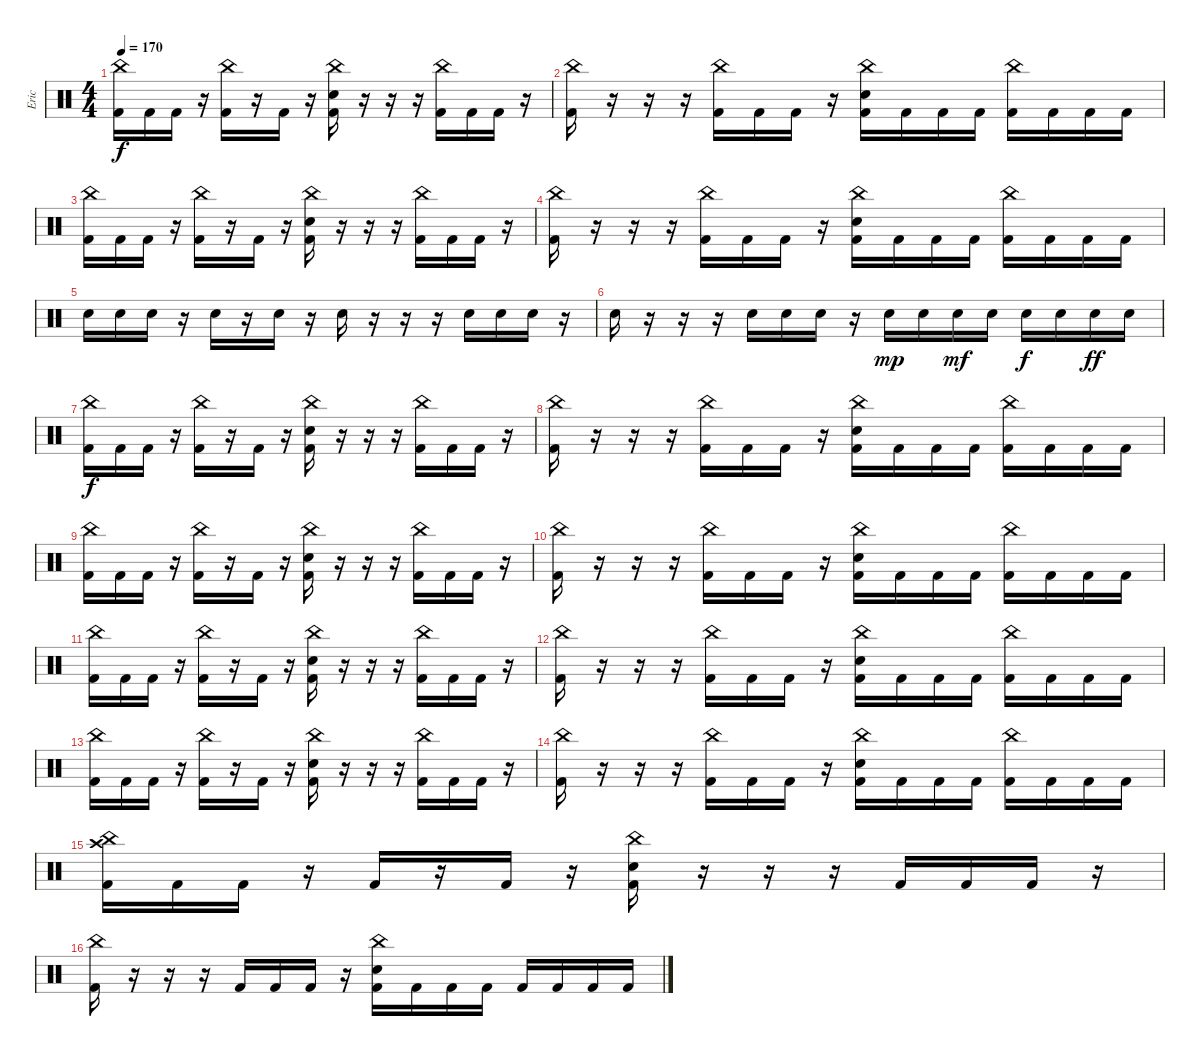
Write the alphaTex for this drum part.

\track ("Eric" "Eric") {instrument percussion}
\staff {score}
\articulation defaults
\ts (4 4)
\tempo 170
\clef neutral
\ks c
("China (hit)" "Kick (hit) 2").16{dy f} "Kick (hit) 2".16 "Kick (hit) 2".16 r.16 ("China (hit)" "Kick (hit) 2").16 r.16 "Kick (hit) 2".16 r.16 ("China (hit)" "Electric Snare (hit)" "Kick (hit) 2").16 r.16 r.16 r.16 ("China (hit)" "Kick (hit) 2").16 "Kick (hit) 2".16 "Kick (hit) 2".16 r.16 |
("China (hit)" "Kick (hit) 2").16 r.16 r.16 r.16 ("China (hit)" "Kick (hit) 2").16 "Kick (hit) 2".16 "Kick (hit) 2".16 r.16 ("China (hit)" "Electric Snare (hit)" "Kick (hit) 2").16 "Kick (hit) 2".16 "Kick (hit) 2".16 "Kick (hit) 2".16 ("China (hit)" "Kick (hit) 2").16 "Kick (hit) 2".16 "Kick (hit) 2".16 "Kick (hit) 2".16 |
("China (hit)" "Kick (hit) 2").16 "Kick (hit) 2".16 "Kick (hit) 2".16 r.16 ("China (hit)" "Kick (hit) 2").16 r.16 "Kick (hit) 2".16 r.16 ("China (hit)" "Electric Snare (hit)" "Kick (hit) 2").16 r.16 r.16 r.16 ("China (hit)" "Kick (hit) 2").16 "Kick (hit) 2".16 "Kick (hit) 2".16 r.16 |
("China (hit)" "Kick (hit) 2").16 r.16 r.16 r.16 ("China (hit)" "Kick (hit) 2").16 "Kick (hit) 2".16 "Kick (hit) 2".16 r.16 ("China (hit)" "Electric Snare (hit)" "Kick (hit) 2").16 "Kick (hit) 2".16 "Kick (hit) 2".16 "Kick (hit) 2".16 ("China (hit)" "Kick (hit) 2").16 "Kick (hit) 2".16 "Kick (hit) 2".16 "Kick (hit) 2".16 |
"Electric Snare (hit)".16 "Electric Snare (hit)".16 "Electric Snare (hit)".16 r.16 "Electric Snare (hit)".16 r.16 "Electric Snare (hit)".16 r.16 "Electric Snare (hit)".16 r.16 r.16 r.16 "Electric Snare (hit)".16 "Electric Snare (hit)".16 "Electric Snare (hit)".16 r.16 |
"Electric Snare (hit)".16 r.16 r.16 r.16 "Electric Snare (hit)".16 "Electric Snare (hit)".16 "Electric Snare (hit)".16 r.16 "Electric Snare (hit)".16{dy mp} "Electric Snare (hit)".16 "Electric Snare (hit)".16{dy mf} "Electric Snare (hit)".16 "Electric Snare (hit)".16{dy f} "Electric Snare (hit)".16 "Electric Snare (hit)".16{dy ff} "Electric Snare (hit)".16 |
("China (hit)" "Kick (hit) 2").16{dy f} "Kick (hit) 2".16 "Kick (hit) 2".16 r.16 ("China (hit)" "Kick (hit) 2").16 r.16 "Kick (hit) 2".16 r.16 ("China (hit)" "Electric Snare (hit)" "Kick (hit) 2").16 r.16 r.16 r.16 ("China (hit)" "Kick (hit) 2").16 "Kick (hit) 2".16 "Kick (hit) 2".16 r.16 |
("China (hit)" "Kick (hit) 2").16 r.16 r.16 r.16 ("China (hit)" "Kick (hit) 2").16 "Kick (hit) 2".16 "Kick (hit) 2".16 r.16 ("China (hit)" "Electric Snare (hit)" "Kick (hit) 2").16 "Kick (hit) 2".16 "Kick (hit) 2".16 "Kick (hit) 2".16 ("China (hit)" "Kick (hit) 2").16 "Kick (hit) 2".16 "Kick (hit) 2".16 "Kick (hit) 2".16 |
("China (hit)" "Kick (hit) 2").16 "Kick (hit) 2".16 "Kick (hit) 2".16 r.16 ("China (hit)" "Kick (hit) 2").16 r.16 "Kick (hit) 2".16 r.16 ("China (hit)" "Electric Snare (hit)" "Kick (hit) 2").16 r.16 r.16 r.16 ("China (hit)" "Kick (hit) 2").16 "Kick (hit) 2".16 "Kick (hit) 2".16 r.16 |
("China (hit)" "Kick (hit) 2").16 r.16 r.16 r.16 ("China (hit)" "Kick (hit) 2").16 "Kick (hit) 2".16 "Kick (hit) 2".16 r.16 ("China (hit)" "Electric Snare (hit)" "Kick (hit) 2").16 "Kick (hit) 2".16 "Kick (hit) 2".16 "Kick (hit) 2".16 ("China (hit)" "Kick (hit) 2").16 "Kick (hit) 2".16 "Kick (hit) 2".16 "Kick (hit) 2".16 |
("China (hit)" "Kick (hit) 2").16 "Kick (hit) 2".16 "Kick (hit) 2".16 r.16 ("China (hit)" "Kick (hit) 2").16 r.16 "Kick (hit) 2".16 r.16 ("China (hit)" "Electric Snare (hit)" "Kick (hit) 2").16 r.16 r.16 r.16 ("China (hit)" "Kick (hit) 2").16 "Kick (hit) 2".16 "Kick (hit) 2".16 r.16 |
("China (hit)" "Kick (hit) 2").16 r.16 r.16 r.16 ("China (hit)" "Kick (hit) 2").16 "Kick (hit) 2".16 "Kick (hit) 2".16 r.16 ("China (hit)" "Electric Snare (hit)" "Kick (hit) 2").16 "Kick (hit) 2".16 "Kick (hit) 2".16 "Kick (hit) 2".16 ("China (hit)" "Kick (hit) 2").16 "Kick (hit) 2".16 "Kick (hit) 2".16 "Kick (hit) 2".16 |
("China (hit)" "Kick (hit) 2").16 "Kick (hit) 2".16 "Kick (hit) 2".16 r.16 ("China (hit)" "Kick (hit) 2").16 r.16 "Kick (hit) 2".16 r.16 ("China (hit)" "Electric Snare (hit)" "Kick (hit) 2").16 r.16 r.16 r.16 ("China (hit)" "Kick (hit) 2").16 "Kick (hit) 2".16 "Kick (hit) 2".16 r.16 |
("China (hit)" "Kick (hit) 2").16 r.16 r.16 r.16 ("China (hit)" "Kick (hit) 2").16 "Kick (hit) 2".16 "Kick (hit) 2".16 r.16 ("China (hit)" "Electric Snare (hit)" "Kick (hit) 2").16 "Kick (hit) 2".16 "Kick (hit) 2".16 "Kick (hit) 2".16 ("China (hit)" "Kick (hit) 2").16 "Kick (hit) 2".16 "Kick (hit) 2".16 "Kick (hit) 2".16 |
("China (hit)" "Crash high (hit)" "Kick (hit) 2").16 "Kick (hit) 2".16 "Kick (hit) 2".16 r.16 "Kick (hit) 2".16 r.16 "Kick (hit) 2".16 r.16 ("China (hit)" "Electric Snare (hit)" "Kick (hit) 2").16 r.16 r.16 r.16 "Kick (hit) 2".16 "Kick (hit) 2".16 "Kick (hit) 2".16 r.16 |
("China (hit)" "Kick (hit) 2").16 r.16 r.16 r.16 "Kick (hit) 2".16 "Kick (hit) 2".16 "Kick (hit) 2".16 r.16 ("China (hit)" "Electric Snare (hit)" "Kick (hit) 2").16 "Kick (hit) 2".16 "Kick (hit) 2".16 "Kick (hit) 2".16 "Kick (hit) 2".16 "Kick (hit) 2".16 "Kick (hit) 2".16 "Kick (hit) 2".16
